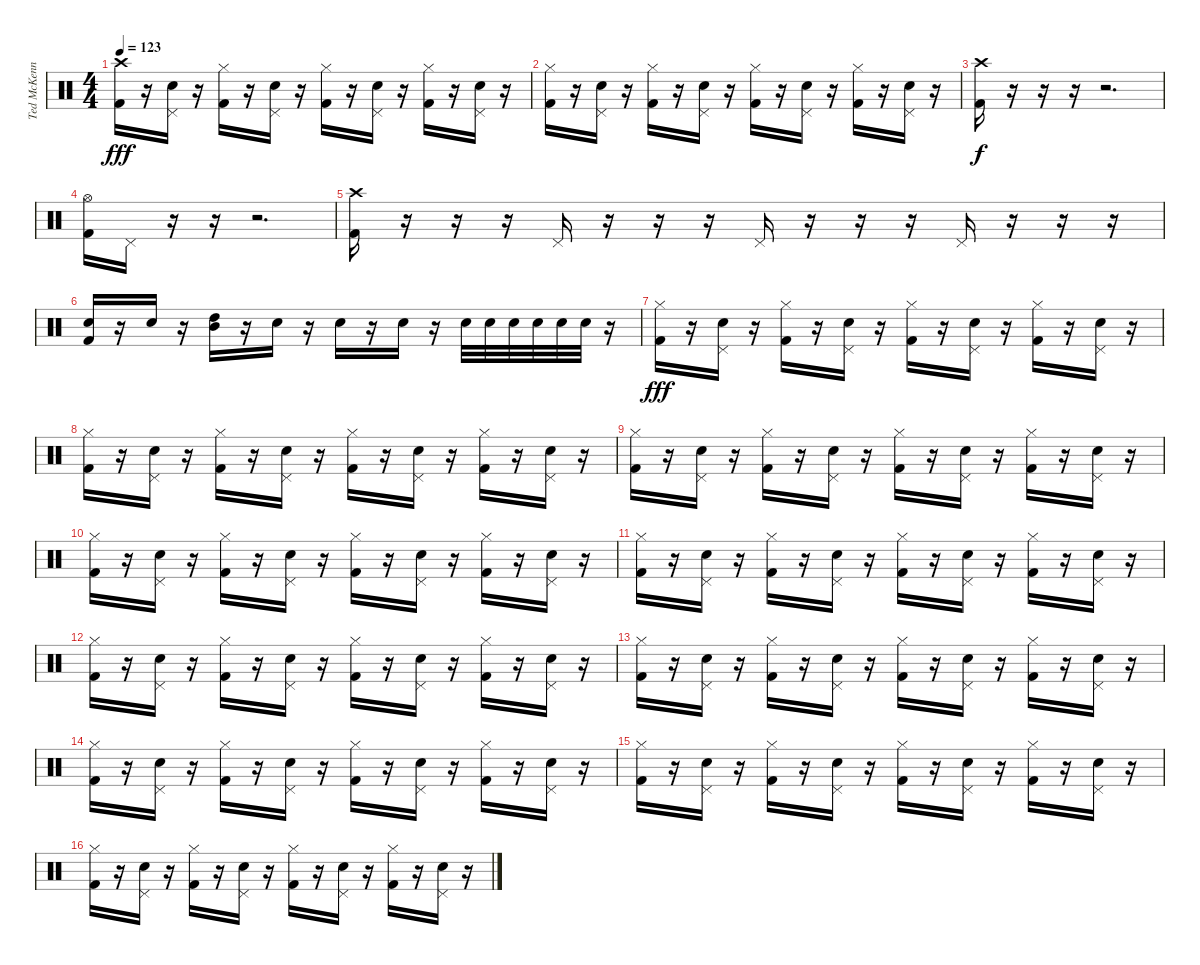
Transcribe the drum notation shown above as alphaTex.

\track ("Ted McKenna" "Ted McKenn") {instrument percussion}
\staff {score}
\articulation defaults
\ts (4 4)
\tempo 123
\clef neutral
\ks c
("Crash high (hit)" "Kick (hit) 2").16{dy fff} r.16 ("Snare (hit) 2" "Pedal Hi-Hat (hit)").16 r.16 ("Hi-Hat (closed)" "Kick (hit) 2").16 r.16 ("Snare (hit) 2" "Pedal Hi-Hat (hit)").16 r.16 ("Hi-Hat (closed)" "Kick (hit) 2").16 r.16 ("Snare (hit) 2" "Pedal Hi-Hat (hit)").16 r.16 ("Hi-Hat (closed)" "Kick (hit) 2").16 r.16 ("Snare (hit) 2" "Pedal Hi-Hat (hit)").16 r.16 |
("Hi-Hat (closed)" "Kick (hit) 2").16 r.16 ("Snare (hit) 2" "Pedal Hi-Hat (hit)").16 r.16 ("Hi-Hat (closed)" "Kick (hit) 2").16 r.16 ("Snare (hit) 2" "Pedal Hi-Hat (hit)").16 r.16 ("Hi-Hat (closed)" "Kick (hit) 2").16 r.16 ("Snare (hit) 2" "Pedal Hi-Hat (hit)").16 r.16 ("Hi-Hat (closed)" "Kick (hit) 2").16 r.16 ("Snare (hit) 2" "Pedal Hi-Hat (hit)").16 r.16 |
("Crash high (hit)" "Kick (hit) 2").16{dy f} r.16 r.16 r.16 r.2{d} |
("Hi-Hat (open)" "Kick (hit) 2").16 "Pedal Hi-Hat (hit)".16 r.16 r.16 r.2{d} |
("Crash high (hit)" "Kick (hit) 2").16 r.16 r.16 r.16 "Pedal Hi-Hat (hit)".16 r.16 r.16 r.16 "Pedal Hi-Hat (hit)".16 r.16 r.16 r.16 "Pedal Hi-Hat (hit)".16 r.16 r.16 r.16 |
("Electric Snare (hit)" "Kick (hit) 2").16 r.16 "Snare (hit) 2".16 r.16 ("Mid Tom (hit)" "High Tom (hit)").16 r.16 "Electric Snare (hit)".16 r.16 "Snare (hit) 2".16 r.16 "Electric Snare (hit)".16 r.16 "Electric Snare (hit)".32 "Electric Snare (hit)".32 "Electric Snare (hit)".32 "Electric Snare (hit)".32 "Electric Snare (hit)".32 "Electric Snare (hit)".32 r.16 |
("Hi-Hat (closed)" "Kick (hit) 2").16{dy fff} r.16 ("Snare (hit) 2" "Pedal Hi-Hat (hit)").16 r.16 ("Hi-Hat (closed)" "Kick (hit) 2").16 r.16 ("Snare (hit) 2" "Pedal Hi-Hat (hit)").16 r.16 ("Hi-Hat (closed)" "Kick (hit) 2").16 r.16 ("Snare (hit) 2" "Pedal Hi-Hat (hit)").16 r.16 ("Hi-Hat (closed)" "Kick (hit) 2").16 r.16 ("Snare (hit) 2" "Pedal Hi-Hat (hit)").16 r.16 |
("Hi-Hat (closed)" "Kick (hit) 2").16 r.16 ("Snare (hit) 2" "Pedal Hi-Hat (hit)").16 r.16 ("Hi-Hat (closed)" "Kick (hit) 2").16 r.16 ("Snare (hit) 2" "Pedal Hi-Hat (hit)").16 r.16 ("Hi-Hat (closed)" "Kick (hit) 2").16 r.16 ("Snare (hit) 2" "Pedal Hi-Hat (hit)").16 r.16 ("Hi-Hat (closed)" "Kick (hit) 2").16 r.16 ("Snare (hit) 2" "Pedal Hi-Hat (hit)").16 r.16 |
("Hi-Hat (closed)" "Kick (hit) 2").16 r.16 ("Snare (hit) 2" "Pedal Hi-Hat (hit)").16 r.16 ("Hi-Hat (closed)" "Kick (hit) 2").16 r.16 ("Snare (hit) 2" "Pedal Hi-Hat (hit)").16 r.16 ("Hi-Hat (closed)" "Kick (hit) 2").16 r.16 ("Snare (hit) 2" "Pedal Hi-Hat (hit)").16 r.16 ("Hi-Hat (closed)" "Kick (hit) 2").16 r.16 ("Snare (hit) 2" "Pedal Hi-Hat (hit)").16 r.16 |
("Hi-Hat (closed)" "Kick (hit) 2").16 r.16 ("Snare (hit) 2" "Pedal Hi-Hat (hit)").16 r.16 ("Hi-Hat (closed)" "Kick (hit) 2").16 r.16 ("Snare (hit) 2" "Pedal Hi-Hat (hit)").16 r.16 ("Hi-Hat (closed)" "Kick (hit) 2").16 r.16 ("Snare (hit) 2" "Pedal Hi-Hat (hit)").16 r.16 ("Hi-Hat (closed)" "Kick (hit) 2").16 r.16 ("Snare (hit) 2" "Pedal Hi-Hat (hit)").16 r.16 |
("Hi-Hat (closed)" "Kick (hit) 2").16 r.16 ("Snare (hit) 2" "Pedal Hi-Hat (hit)").16 r.16 ("Hi-Hat (closed)" "Kick (hit) 2").16 r.16 ("Snare (hit) 2" "Pedal Hi-Hat (hit)").16 r.16 ("Hi-Hat (closed)" "Kick (hit) 2").16 r.16 ("Snare (hit) 2" "Pedal Hi-Hat (hit)").16 r.16 ("Hi-Hat (closed)" "Kick (hit) 2").16 r.16 ("Snare (hit) 2" "Pedal Hi-Hat (hit)").16 r.16 |
("Hi-Hat (closed)" "Kick (hit) 2").16 r.16 ("Snare (hit) 2" "Pedal Hi-Hat (hit)").16 r.16 ("Hi-Hat (closed)" "Kick (hit) 2").16 r.16 ("Snare (hit) 2" "Pedal Hi-Hat (hit)").16 r.16 ("Hi-Hat (closed)" "Kick (hit) 2").16 r.16 ("Snare (hit) 2" "Pedal Hi-Hat (hit)").16 r.16 ("Hi-Hat (closed)" "Kick (hit) 2").16 r.16 ("Snare (hit) 2" "Pedal Hi-Hat (hit)").16 r.16 |
("Hi-Hat (closed)" "Kick (hit) 2").16 r.16 ("Snare (hit) 2" "Pedal Hi-Hat (hit)").16 r.16 ("Hi-Hat (closed)" "Kick (hit) 2").16 r.16 ("Snare (hit) 2" "Pedal Hi-Hat (hit)").16 r.16 ("Hi-Hat (closed)" "Kick (hit) 2").16 r.16 ("Snare (hit) 2" "Pedal Hi-Hat (hit)").16 r.16 ("Hi-Hat (closed)" "Kick (hit) 2").16 r.16 ("Snare (hit) 2" "Pedal Hi-Hat (hit)").16 r.16 |
("Hi-Hat (closed)" "Kick (hit) 2").16 r.16 ("Snare (hit) 2" "Pedal Hi-Hat (hit)").16 r.16 ("Hi-Hat (closed)" "Kick (hit) 2").16 r.16 ("Snare (hit) 2" "Pedal Hi-Hat (hit)").16 r.16 ("Hi-Hat (closed)" "Kick (hit) 2").16 r.16 ("Snare (hit) 2" "Pedal Hi-Hat (hit)").16 r.16 ("Hi-Hat (closed)" "Kick (hit) 2").16 r.16 ("Snare (hit) 2" "Pedal Hi-Hat (hit)").16 r.16 |
("Hi-Hat (closed)" "Kick (hit) 2").16 r.16 ("Snare (hit) 2" "Pedal Hi-Hat (hit)").16 r.16 ("Hi-Hat (closed)" "Kick (hit) 2").16 r.16 ("Snare (hit) 2" "Pedal Hi-Hat (hit)").16 r.16 ("Hi-Hat (closed)" "Kick (hit) 2").16 r.16 ("Snare (hit) 2" "Pedal Hi-Hat (hit)").16 r.16 ("Hi-Hat (closed)" "Kick (hit) 2").16 r.16 ("Snare (hit) 2" "Pedal Hi-Hat (hit)").16 r.16 |
("Hi-Hat (closed)" "Kick (hit) 2").16 r.16 ("Snare (hit) 2" "Pedal Hi-Hat (hit)").16 r.16 ("Hi-Hat (closed)" "Kick (hit) 2").16 r.16 ("Snare (hit) 2" "Pedal Hi-Hat (hit)").16 r.16 ("Hi-Hat (closed)" "Kick (hit) 2").16 r.16 ("Snare (hit) 2" "Pedal Hi-Hat (hit)").16 r.16 ("Hi-Hat (closed)" "Kick (hit) 2").16 r.16 ("Snare (hit) 2" "Pedal Hi-Hat (hit)").16 r.16
